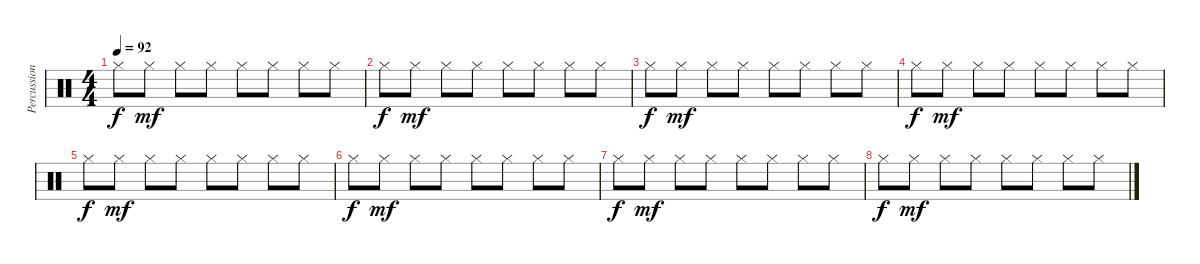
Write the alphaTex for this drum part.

\track ("Percussion" "Percussion") {instrument percussion}
\staff {score}
\articulation defaults
\ts (4 4)
\tempo 92
\clef neutral
\ks c "Hi-Hat (closed)".8{dy f} "Hi-Hat (closed)".8{dy mf} "Hi-Hat (closed)".8 "Hi-Hat (closed)".8 "Hi-Hat (closed)".8 "Hi-Hat (closed)".8 "Hi-Hat (closed)".8 "Hi-Hat (closed)".8
|
"Hi-Hat (closed)".8{dy f} "Hi-Hat (closed)".8{dy mf} "Hi-Hat (closed)".8 "Hi-Hat (closed)".8 "Hi-Hat (closed)".8 "Hi-Hat (closed)".8 "Hi-Hat (closed)".8 "Hi-Hat (closed)".8 |
"Hi-Hat (closed)".8{dy f} "Hi-Hat (closed)".8{dy mf} "Hi-Hat (closed)".8 "Hi-Hat (closed)".8 "Hi-Hat (closed)".8 "Hi-Hat (closed)".8 "Hi-Hat (closed)".8 "Hi-Hat (closed)".8 |
"Hi-Hat (closed)".8{dy f} "Hi-Hat (closed)".8{dy mf} "Hi-Hat (closed)".8 "Hi-Hat (closed)".8 "Hi-Hat (closed)".8 "Hi-Hat (closed)".8 "Hi-Hat (closed)".8 "Hi-Hat (closed)".8 |
"Hi-Hat (closed)".8{dy f} "Hi-Hat (closed)".8{dy mf} "Hi-Hat (closed)".8 "Hi-Hat (closed)".8 "Hi-Hat (closed)".8 "Hi-Hat (closed)".8 "Hi-Hat (closed)".8 "Hi-Hat (closed)".8 |
"Hi-Hat (closed)".8{dy f} "Hi-Hat (closed)".8{dy mf} "Hi-Hat (closed)".8 "Hi-Hat (closed)".8 "Hi-Hat (closed)".8 "Hi-Hat (closed)".8 "Hi-Hat (closed)".8 "Hi-Hat (closed)".8 |
"Hi-Hat (closed)".8{dy f} "Hi-Hat (closed)".8{dy mf} "Hi-Hat (closed)".8 "Hi-Hat (closed)".8 "Hi-Hat (closed)".8 "Hi-Hat (closed)".8 "Hi-Hat (closed)".8 "Hi-Hat (closed)".8 |
"Hi-Hat (closed)".8{dy f} "Hi-Hat (closed)".8{dy mf} "Hi-Hat (closed)".8 "Hi-Hat (closed)".8 "Hi-Hat (closed)".8 "Hi-Hat (closed)".8 "Hi-Hat (closed)".8 "Hi-Hat (closed)".8
